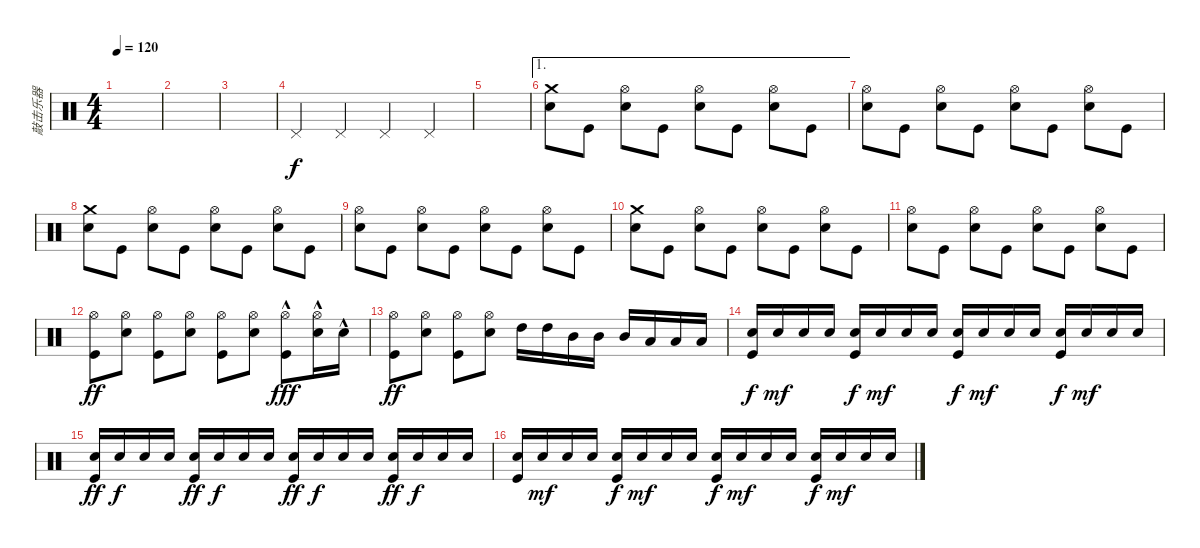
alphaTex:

\track ("敲击乐器" "敲击乐器") {instrument percussion}
\staff {score}
\articulation defaults
\ts (4 4)
\tempo 120
\clef neutral
\ks c
|
|
|
"Pedal Hi-Hat (hit)".4 "Pedal Hi-Hat (hit)".4 "Pedal Hi-Hat (hit)".4 "Pedal Hi-Hat (hit)".4 |
|
\ae 1
("Crash medium (hit)" "Snare (hit) 2").8 "Kick (hit)".8 ("Snare (hit) 2" "Hi-Hat (open)").8 "Kick (hit)".8 ("Snare (hit) 2" "Hi-Hat (open)").8 "Kick (hit)".8 ("Snare (hit) 2" "Hi-Hat (open)").8 "Kick (hit)".8 |
("Snare (hit) 2" "Hi-Hat (open)").8 "Kick (hit)".8 ("Snare (hit) 2" "Hi-Hat (open)").8 "Kick (hit)".8 ("Snare (hit) 2" "Hi-Hat (open)").8 "Kick (hit)".8 ("Snare (hit) 2" "Hi-Hat (open)").8 "Kick (hit)".8 |
("Crash medium (hit)" "Snare (hit) 2").8 "Kick (hit)".8 ("Snare (hit) 2" "Hi-Hat (open)").8 "Kick (hit)".8 ("Snare (hit) 2" "Hi-Hat (open)").8 "Kick (hit)".8 ("Snare (hit) 2" "Hi-Hat (open)").8 "Kick (hit)".8 |
("Snare (hit) 2" "Hi-Hat (open)").8 "Kick (hit)".8 ("Snare (hit) 2" "Hi-Hat (open)").8 "Kick (hit)".8 ("Snare (hit) 2" "Hi-Hat (open)").8 "Kick (hit)".8 ("Snare (hit) 2" "Hi-Hat (open)").8 "Kick (hit)".8 |
("Crash medium (hit)" "Snare (hit) 2").8 "Kick (hit)".8 ("Snare (hit) 2" "Hi-Hat (open)").8 "Kick (hit)".8 ("Snare (hit) 2" "Hi-Hat (open)").8 "Kick (hit)".8 ("Snare (hit) 2" "Hi-Hat (open)").8 "Kick (hit)".8 |
("Snare (hit) 2" "Hi-Hat (open)").8 "Kick (hit)".8 ("Snare (hit) 2" "Hi-Hat (open)").8 "Kick (hit)".8 ("Snare (hit) 2" "Hi-Hat (open)").8 "Kick (hit)".8 ("Snare (hit) 2" "Hi-Hat (open)").8 "Kick (hit)".8 |
("Hi-Hat (open)" "Kick (hit)").8{dy ff} ("Hi-Hat (open)" "Electric Snare (hit)").8 ("Hi-Hat (open)" "Kick (hit)").8 ("Hi-Hat (open)" "Electric Snare (hit)").8 ("Hi-Hat (open)" "Kick (hit)").8 ("Hi-Hat (open)" "Electric Snare (hit)").8 ("Hi-Hat (open)" "Kick (hit)"{hac}).8{dy fff} ("Hi-Hat (open)" "Electric Snare (hit)"{hac}).16 "Electric Snare (hit)"{hac}.16 |
("Hi-Hat (open)" "Kick (hit)").8{dy ff} ("Hi-Hat (open)" "Electric Snare (hit)").8 ("Hi-Hat (open)" "Kick (hit)").8 ("Hi-Hat (open)" "Electric Snare (hit)").8 "High Tom (hit)".16 "High Tom (hit)".16 "Mid Tom (hit)".16 "Mid Tom (hit)".16 "Mid Tom (hit)".16 "Low Tom (hit)".16 "Low Tom (hit)".16 "Low Floor Tom (hit)".16 |
("Snare (hit) 2" "Kick (hit)").16{dy f} "Snare (hit) 2".16{dy mf} "Snare (hit) 2".16 "Snare (hit) 2".16 ("Snare (hit) 2" "Kick (hit)").16{dy f} "Snare (hit) 2".16{dy mf} "Snare (hit) 2".16 "Snare (hit) 2".16 ("Snare (hit) 2" "Kick (hit)").16{dy f} "Snare (hit) 2".16{dy mf} "Snare (hit) 2".16 "Snare (hit) 2".16 ("Snare (hit) 2" "Kick (hit)").16{dy f} "Snare (hit) 2".16{dy mf} "Snare (hit) 2".16 "Snare (hit) 2".16 |
("Snare (hit) 2" "Kick (hit)").16{dy ff} "Snare (hit) 2".16{dy f} "Snare (hit) 2".16 "Snare (hit) 2".16 ("Snare (hit) 2" "Kick (hit)").16{dy ff} "Snare (hit) 2".16{dy f} "Snare (hit) 2".16 "Snare (hit) 2".16 ("Snare (hit) 2" "Kick (hit)").16{dy ff} "Snare (hit) 2".16{dy f} "Snare (hit) 2".16 "Snare (hit) 2".16 ("Snare (hit) 2" "Kick (hit)").16{dy ff} "Snare (hit) 2".16{dy f} "Snare (hit) 2".16 "Snare (hit) 2".16 |
("Snare (hit) 2" "Kick (hit)").16 "Snare (hit) 2".16{dy mf} "Snare (hit) 2".16 "Snare (hit) 2".16 ("Snare (hit) 2" "Kick (hit)").16{dy f} "Snare (hit) 2".16{dy mf} "Snare (hit) 2".16 "Snare (hit) 2".16 ("Snare (hit) 2" "Kick (hit)").16{dy f} "Snare (hit) 2".16{dy mf} "Snare (hit) 2".16 "Snare (hit) 2".16 ("Snare (hit) 2" "Kick (hit)").16{dy f} "Snare (hit) 2".16{dy mf} "Snare (hit) 2".16 "Snare (hit) 2".16
